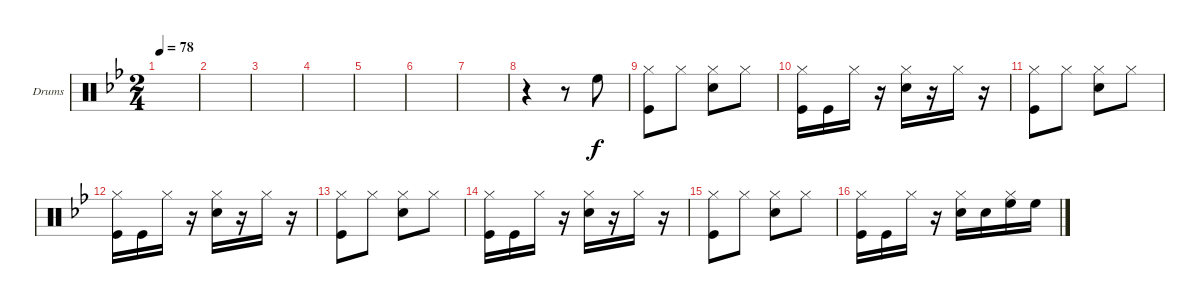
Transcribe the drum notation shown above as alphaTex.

\defaultSystemsLayout 4
\bracketExtendMode groupsimilarinstruments
\firstSystemTrackNameOrientation horizontal
\otherSystemsTrackNameOrientation horizontal
\track ("Катя" "Drums") {instrument percussion}
\staff {score}
\articulation defaults
\ts (2 4)
\tempo 78
\clef neutral
\ks gminor
|
|
|
|
|
|
|
r.4 r.8 "High Floor Tom (hit)".8 |
("Kick (hit)" "Hi-Hat (closed)").8 "Hi-Hat (closed)".8 ("Hi-Hat (closed)" "Snare (hit) 2").8 "Hi-Hat (closed)".8 |
("Hi-Hat (closed)" "Kick (hit)").16 "Kick (hit)".16 "Hi-Hat (closed)".16 r.16 ("Hi-Hat (closed)" "Snare (hit) 2").16 r.16 "Hi-Hat (closed)".16 r.16 |
("Kick (hit)" "Hi-Hat (closed)").8 "Hi-Hat (closed)".8 ("Hi-Hat (closed)" "Snare (hit) 2").8 "Hi-Hat (closed)".8 |
("Hi-Hat (closed)" "Kick (hit)").16 "Kick (hit)".16 "Hi-Hat (closed)".16 r.16 ("Hi-Hat (closed)" "Snare (hit) 2").16 r.16 "Hi-Hat (closed)".16 r.16 |
("Kick (hit)" "Hi-Hat (closed)").8 "Hi-Hat (closed)".8 ("Hi-Hat (closed)" "Snare (hit) 2").8 "Hi-Hat (closed)".8 |
("Hi-Hat (closed)" "Kick (hit)").16 "Kick (hit)".16 "Hi-Hat (closed)".16 r.16 ("Hi-Hat (closed)" "Snare (hit) 2").16 r.16 "Hi-Hat (closed)".16 r.16 |
("Kick (hit)" "Hi-Hat (closed)").8 "Hi-Hat (closed)".8 ("Hi-Hat (closed)" "Snare (hit) 2").8 "Hi-Hat (closed)".8 |
("Hi-Hat (closed)" "Kick (hit)").16 "Kick (hit)".16 "Hi-Hat (closed)".16 r.16 ("Hi-Hat (closed)" "Snare (hit) 2").16 "Snare (hit) 2".16 ("Hi-Hat (closed)" "High Floor Tom (hit)").16 "High Floor Tom (hit)".16
